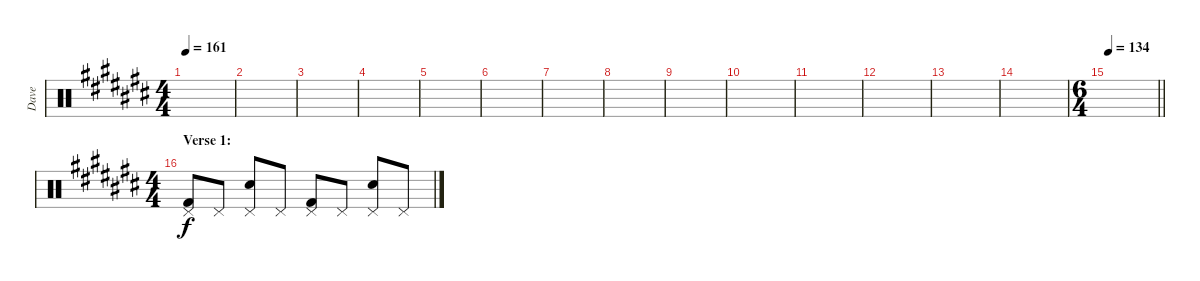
\track ("Dave" "Dave") {instrument percussion}
\staff {score}
\articulation defaults
\ts (4 4)
\tempo 161
\clef neutral
\ks c#
|
|
|
|
|
|
|
|
|
|
|
|
|
|
\ts (6 4)
\tempo 134
\barLineRight lightlight
|
\ts (4 4)
\section ("" "Verse 1:")
("Pedal Hi-Hat (hit)" "Kick (hit) 2").8 "Pedal Hi-Hat (hit)".8 ("Pedal Hi-Hat (hit)" "Snare (hit) 2").8 "Pedal Hi-Hat (hit)".8 ("Pedal Hi-Hat (hit)" "Kick (hit) 2").8 "Pedal Hi-Hat (hit)".8 ("Pedal Hi-Hat (hit)" "Snare (hit) 2").8 "Pedal Hi-Hat (hit)".8
